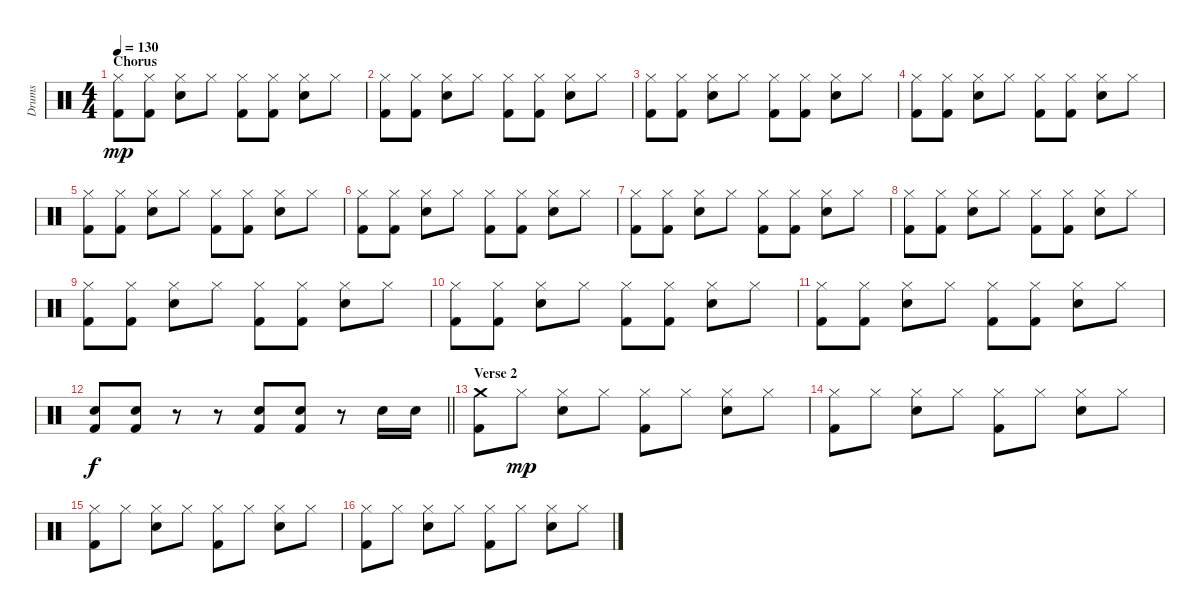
\track ("Drums" "Drums") {instrument percussion}
\staff {score}
\articulation defaults
\ts (4 4)
\section ("" "Chorus")
\tempo 130
\clef neutral
\ks c
("Hi-Hat (closed)" "Kick (hit) 2").8{dy mp} ("Hi-Hat (closed)" "Kick (hit) 2").8 ("Hi-Hat (closed)" "Snare (hit) 2").8 "Hi-Hat (closed)".8 ("Hi-Hat (closed)" "Kick (hit) 2").8 ("Hi-Hat (closed)" "Kick (hit) 2").8 ("Hi-Hat (closed)" "Snare (hit) 2").8 "Hi-Hat (closed)".8 |
("Hi-Hat (closed)" "Kick (hit) 2").8 ("Hi-Hat (closed)" "Kick (hit) 2").8 ("Hi-Hat (closed)" "Snare (hit) 2").8 "Hi-Hat (closed)".8 ("Hi-Hat (closed)" "Kick (hit) 2").8 ("Hi-Hat (closed)" "Kick (hit) 2").8 ("Hi-Hat (closed)" "Snare (hit) 2").8 "Hi-Hat (closed)".8 |
("Hi-Hat (closed)" "Kick (hit) 2").8 ("Hi-Hat (closed)" "Kick (hit) 2").8 ("Hi-Hat (closed)" "Snare (hit) 2").8 "Hi-Hat (closed)".8 ("Hi-Hat (closed)" "Kick (hit) 2").8 ("Hi-Hat (closed)" "Kick (hit) 2").8 ("Hi-Hat (closed)" "Snare (hit) 2").8 "Hi-Hat (closed)".8 |
("Hi-Hat (closed)" "Kick (hit) 2").8 ("Hi-Hat (closed)" "Kick (hit) 2").8 ("Hi-Hat (closed)" "Snare (hit) 2").8 "Hi-Hat (closed)".8 ("Hi-Hat (closed)" "Kick (hit) 2").8 ("Hi-Hat (closed)" "Kick (hit) 2").8 ("Hi-Hat (closed)" "Snare (hit) 2").8 "Hi-Hat (closed)".8 |
("Hi-Hat (closed)" "Kick (hit) 2").8 ("Hi-Hat (closed)" "Kick (hit) 2").8 ("Hi-Hat (closed)" "Snare (hit) 2").8 "Hi-Hat (closed)".8 ("Hi-Hat (closed)" "Kick (hit) 2").8 ("Hi-Hat (closed)" "Kick (hit) 2").8 ("Hi-Hat (closed)" "Snare (hit) 2").8 "Hi-Hat (closed)".8 |
("Hi-Hat (closed)" "Kick (hit) 2").8 ("Hi-Hat (closed)" "Kick (hit) 2").8 ("Hi-Hat (closed)" "Snare (hit) 2").8 "Hi-Hat (closed)".8 ("Hi-Hat (closed)" "Kick (hit) 2").8 ("Hi-Hat (closed)" "Kick (hit) 2").8 ("Hi-Hat (closed)" "Snare (hit) 2").8 "Hi-Hat (closed)".8 |
("Hi-Hat (closed)" "Kick (hit) 2").8 ("Hi-Hat (closed)" "Kick (hit) 2").8 ("Hi-Hat (closed)" "Snare (hit) 2").8 "Hi-Hat (closed)".8 ("Hi-Hat (closed)" "Kick (hit) 2").8 ("Hi-Hat (closed)" "Kick (hit) 2").8 ("Hi-Hat (closed)" "Snare (hit) 2").8 "Hi-Hat (closed)".8 |
("Hi-Hat (closed)" "Kick (hit) 2").8 ("Hi-Hat (closed)" "Kick (hit) 2").8 ("Hi-Hat (closed)" "Snare (hit) 2").8 "Hi-Hat (closed)".8 ("Hi-Hat (closed)" "Kick (hit) 2").8 ("Hi-Hat (closed)" "Kick (hit) 2").8 ("Hi-Hat (closed)" "Snare (hit) 2").8 "Hi-Hat (closed)".8 |
("Hi-Hat (closed)" "Kick (hit) 2").8 ("Hi-Hat (closed)" "Kick (hit) 2").8 ("Hi-Hat (closed)" "Snare (hit) 2").8 "Hi-Hat (closed)".8 ("Hi-Hat (closed)" "Kick (hit) 2").8 ("Hi-Hat (closed)" "Kick (hit) 2").8 ("Hi-Hat (closed)" "Snare (hit) 2").8 "Hi-Hat (closed)".8 |
("Hi-Hat (closed)" "Kick (hit) 2").8 ("Hi-Hat (closed)" "Kick (hit) 2").8 ("Hi-Hat (closed)" "Snare (hit) 2").8 "Hi-Hat (closed)".8 ("Hi-Hat (closed)" "Kick (hit) 2").8 ("Hi-Hat (closed)" "Kick (hit) 2").8 ("Hi-Hat (closed)" "Snare (hit) 2").8 "Hi-Hat (closed)".8 |
("Hi-Hat (closed)" "Kick (hit) 2").8 ("Hi-Hat (closed)" "Kick (hit) 2").8 ("Hi-Hat (closed)" "Snare (hit) 2").8 "Hi-Hat (closed)".8 ("Hi-Hat (closed)" "Kick (hit) 2").8 ("Hi-Hat (closed)" "Kick (hit) 2").8 ("Hi-Hat (closed)" "Snare (hit) 2").8 "Hi-Hat (closed)".8 |
\barLineRight lightlight
("Snare (hit) 2" "Kick (hit) 2").8{dy f} ("Snare (hit) 2" "Kick (hit) 2").8 r.8 r.8 ("Snare (hit) 2" "Kick (hit) 2").8 ("Snare (hit) 2" "Kick (hit) 2").8 r.8 "Snare (hit) 2".16 "Snare (hit) 2".16 |
\section ("" "Verse 2")
("Crash medium (hit)" "Kick (hit) 2").8 "Hi-Hat (closed)".8{dy mp} ("Hi-Hat (closed)" "Snare (hit) 2").8 "Hi-Hat (closed)".8 ("Hi-Hat (closed)" "Kick (hit) 2").8 "Hi-Hat (closed)".8 ("Hi-Hat (closed)" "Snare (hit) 2").8 "Hi-Hat (closed)".8 |
("Hi-Hat (closed)" "Kick (hit) 2").8 "Hi-Hat (closed)".8 ("Hi-Hat (closed)" "Snare (hit) 2").8 "Hi-Hat (closed)".8 ("Hi-Hat (closed)" "Kick (hit) 2").8 "Hi-Hat (closed)".8 ("Hi-Hat (closed)" "Snare (hit) 2").8 "Hi-Hat (closed)".8 |
("Hi-Hat (closed)" "Kick (hit) 2").8 "Hi-Hat (closed)".8 ("Hi-Hat (closed)" "Snare (hit) 2").8 "Hi-Hat (closed)".8 ("Hi-Hat (closed)" "Kick (hit) 2").8 "Hi-Hat (closed)".8 ("Hi-Hat (closed)" "Snare (hit) 2").8 "Hi-Hat (closed)".8 |
("Hi-Hat (closed)" "Kick (hit) 2").8 "Hi-Hat (closed)".8 ("Hi-Hat (closed)" "Snare (hit) 2").8 "Hi-Hat (closed)".8 ("Hi-Hat (closed)" "Kick (hit) 2").8 "Hi-Hat (closed)".8 ("Hi-Hat (closed)" "Snare (hit) 2").8 "Hi-Hat (closed)".8
